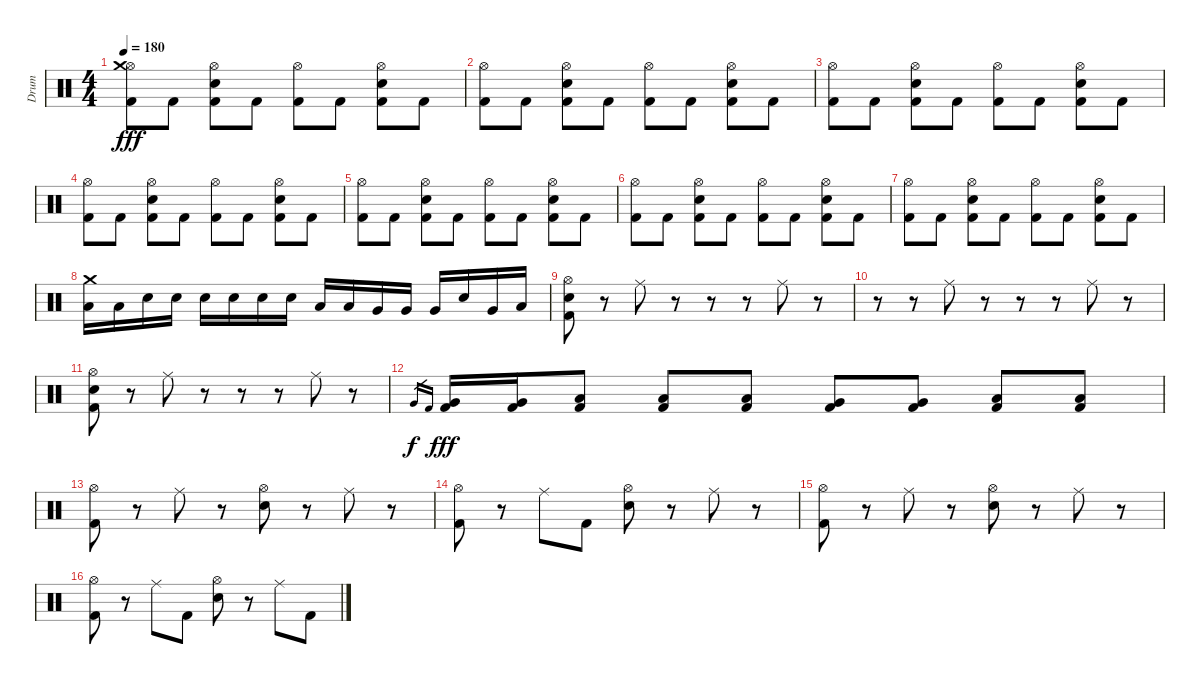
\track ("Drum" "Drum") {instrument percussion}
\staff {score}
\articulation defaults
\ts (4 4)
\tempo 180
\clef neutral
\ks c
("Hi-Hat (open)" "Crash medium (hit)" "Kick (hit) 2").8{dy fff} "Kick (hit) 2".8 ("Hi-Hat (open)" "Electric Snare (hit)" "Kick (hit) 2").8 "Kick (hit) 2".8 ("Hi-Hat (open)" "Kick (hit) 2").8 "Kick (hit) 2".8 ("Hi-Hat (open)" "Electric Snare (hit)" "Kick (hit) 2").8 "Kick (hit) 2".8 |
("Hi-Hat (open)" "Kick (hit) 2").8 "Kick (hit) 2".8 ("Hi-Hat (open)" "Electric Snare (hit)" "Kick (hit) 2").8 "Kick (hit) 2".8 ("Hi-Hat (open)" "Kick (hit) 2").8 "Kick (hit) 2".8 ("Hi-Hat (open)" "Electric Snare (hit)" "Kick (hit) 2").8 "Kick (hit) 2".8 |
("Hi-Hat (open)" "Kick (hit) 2").8 "Kick (hit) 2".8 ("Hi-Hat (open)" "Electric Snare (hit)" "Kick (hit) 2").8 "Kick (hit) 2".8 ("Hi-Hat (open)" "Kick (hit) 2").8 "Kick (hit) 2".8 ("Hi-Hat (open)" "Electric Snare (hit)" "Kick (hit) 2").8 "Kick (hit) 2".8 |
("Hi-Hat (open)" "Kick (hit) 2").8 "Kick (hit) 2".8 ("Hi-Hat (open)" "Electric Snare (hit)" "Kick (hit) 2").8 "Kick (hit) 2".8 ("Hi-Hat (open)" "Kick (hit) 2").8 "Kick (hit) 2".8 ("Hi-Hat (open)" "Electric Snare (hit)" "Kick (hit) 2").8 "Kick (hit) 2".8 |
("Hi-Hat (open)" "Kick (hit) 2").8 "Kick (hit) 2".8 ("Hi-Hat (open)" "Electric Snare (hit)" "Kick (hit) 2").8 "Kick (hit) 2".8 ("Hi-Hat (open)" "Kick (hit) 2").8 "Kick (hit) 2".8 ("Hi-Hat (open)" "Electric Snare (hit)" "Kick (hit) 2").8 "Kick (hit) 2".8 |
("Hi-Hat (open)" "Kick (hit) 2").8 "Kick (hit) 2".8 ("Hi-Hat (open)" "Electric Snare (hit)" "Kick (hit) 2").8 "Kick (hit) 2".8 ("Hi-Hat (open)" "Kick (hit) 2").8 "Kick (hit) 2".8 ("Hi-Hat (open)" "Electric Snare (hit)" "Kick (hit) 2").8 "Kick (hit) 2".8 |
("Hi-Hat (open)" "Kick (hit) 2").8 "Kick (hit) 2".8 ("Hi-Hat (open)" "Electric Snare (hit)" "Kick (hit) 2").8 "Kick (hit) 2".8 ("Hi-Hat (open)" "Kick (hit) 2").8 "Kick (hit) 2".8 ("Hi-Hat (open)" "Electric Snare (hit)" "Kick (hit) 2").8 "Kick (hit) 2".8 |
("Crash medium (hit)" "Low Tom (hit)").16 "Low Tom (hit)".16 "Electric Snare (hit)".16 "Electric Snare (hit)".16 "Electric Snare (hit)".16 "Electric Snare (hit)".16 "Electric Snare (hit)".16 "Electric Snare (hit)".16 "Low Tom (hit)".16 "Low Tom (hit)".16 "Very Low Tom (hit)".16 "Very Low Tom (hit)".16 "Very Low Tom (hit)".16 "Electric Snare (hit)".16 "Very Low Tom (hit)".16 "Low Floor Tom (hit)".16 |
("Hi-Hat (open)" "Electric Snare (hit)" "Kick (hit) 2").8 r.8 "Ride (middle)".8 r.8 r.8 r.8 "Ride (middle)".8 r.8 |
r.8 r.8 "Ride (middle)".8 r.8 r.8 r.8 "Ride (middle)".8 r.8 |
("Hi-Hat (open)" "Electric Snare (hit)" "Kick (hit) 2").8 r.8 "Ride (middle)".8 r.8 r.8 r.8 "Ride (middle)".8 r.8 |
"Very Low Tom (hit)".16{gr dy f} "Kick (hit) 2".16{gr} ("Very Low Tom (hit)" "Kick (hit) 2").16{dy fff} ("Very Low Tom (hit)" "Kick (hit) 2").16 ("Low Tom (hit)" "Kick (hit) 2").8 ("Low Tom (hit)" "Kick (hit) 2").8 ("Low Tom (hit)" "Kick (hit) 2").8 ("Very Low Tom (hit)" "Kick (hit) 2").8 ("Very Low Tom (hit)" "Kick (hit) 2").8 ("Low Floor Tom (hit)" "Kick (hit) 2").8 ("Low Floor Tom (hit)" "Kick (hit) 2").8 |
("Hi-Hat (open)" "Kick (hit) 2").8 r.8 "Ride (middle)".8 r.8 ("Hi-Hat (open)" "Electric Snare (hit)").8 r.8 "Ride (middle)".8 r.8 |
("Hi-Hat (open)" "Kick (hit) 2").8 r.8 "Ride (middle)".8 "Kick (hit) 2".8 ("Hi-Hat (open)" "Electric Snare (hit)").8 r.8 "Ride (middle)".8 r.8 |
("Hi-Hat (open)" "Kick (hit) 2").8 r.8 "Ride (middle)".8 r.8 ("Hi-Hat (open)" "Electric Snare (hit)").8 r.8 "Ride (middle)".8 r.8 |
("Hi-Hat (open)" "Kick (hit) 2").8 r.8 "Ride (middle)".8 "Kick (hit) 2".8 ("Hi-Hat (open)" "Electric Snare (hit)").8 r.8 "Ride (middle)".8 "Kick (hit) 2".8
